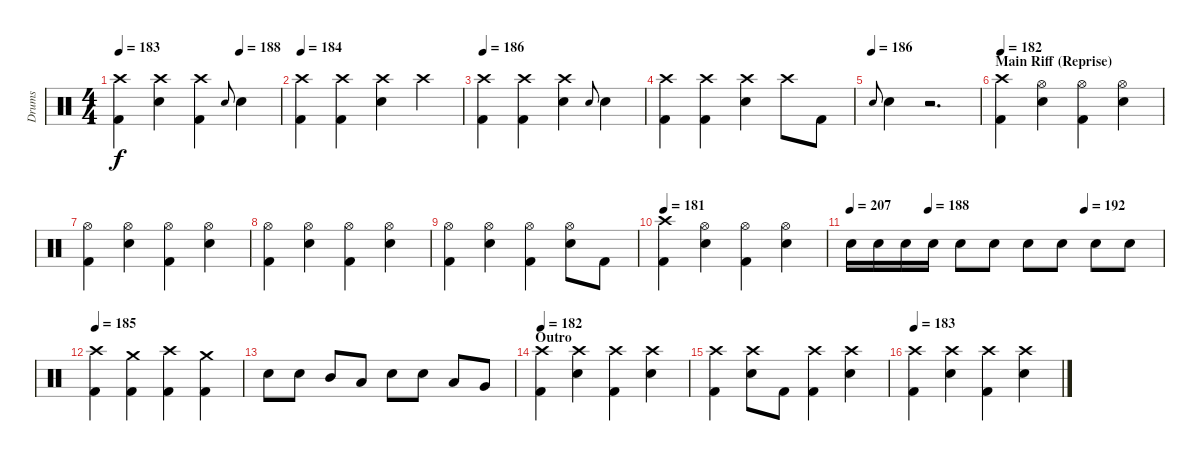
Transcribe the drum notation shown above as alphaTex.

\track ("Drums" "Drums") {instrument percussion}
\staff {score}
\articulation defaults
\ts (4 4)
\tempo 183
\tempo (188 0.75)
\clef neutral
\ks c
("Kick (hit) 2" "Crash high (hit)").4{dy f} ("Snare (hit) 2" "Crash high (hit)").4 ("Kick (hit) 2" "Crash high (hit)").4 "Snare (hit)".8{gr onbeat} "Snare (hit) 2".4 |
\tempo 184
("Crash high (hit)" "Kick (hit) 2").4 ("Crash high (hit)" "Kick (hit) 2").4 ("Crash high (hit)" "Snare (hit) 2").4 "Crash high (hit)".4 |
\tempo 186
("Crash high (hit)" "Kick (hit) 2").4 ("Crash high (hit)" "Kick (hit) 2").4 ("Crash high (hit)" "Snare (hit) 2").4 "Snare (hit)".8{gr onbeat} "Snare (hit) 2".4 |
("Crash high (hit)" "Kick (hit) 2").4 ("Crash high (hit)" "Kick (hit) 2").4 ("Crash high (hit)" "Snare (hit) 2").4 "Crash high (hit)".8 "Kick (hit) 2".8 |
\tempo (186)
"Snare (hit)".8{gr onbeat} "Snare (hit) 2".4 r.2{d} |
\section ("" "Main Riff (Reprise)")
\tempo 182
("Crash high (hit)" "Kick (hit) 2").4 ("Hi-Hat (open)" "Snare (hit) 2").4 ("Hi-Hat (open)" "Kick (hit) 2").4 ("Hi-Hat (open)" "Snare (hit) 2").4 |
("Hi-Hat (open)" "Kick (hit) 2").4 ("Hi-Hat (open)" "Snare (hit) 2").4 ("Hi-Hat (open)" "Kick (hit) 2").4 ("Hi-Hat (open)" "Snare (hit) 2").4 |
("Hi-Hat (open)" "Kick (hit) 2").4 ("Hi-Hat (open)" "Snare (hit) 2").4 ("Hi-Hat (open)" "Kick (hit) 2").4 ("Hi-Hat (open)" "Snare (hit) 2").4 |
("Hi-Hat (open)" "Kick (hit) 2").4 ("Hi-Hat (open)" "Snare (hit) 2").4 ("Hi-Hat (open)" "Kick (hit) 2").4 ("Hi-Hat (open)" "Snare (hit) 2").8 "Kick (hit) 2".8 |
\tempo 181
("Crash high (hit)" "Kick (hit) 2").4 ("Hi-Hat (open)" "Snare (hit) 2").4 ("Hi-Hat (open)" "Kick (hit) 2").4 ("Hi-Hat (open)" "Snare (hit) 2").4 |
\tempo 207
\tempo (188 0.25)
\tempo (192 0.75)
"Snare (hit) 2".16 "Snare (hit) 2".16 "Snare (hit) 2".16 "Snare (hit) 2".16 "Snare (hit) 2".8 "Snare (hit) 2".8 "Snare (hit) 2".8 "Snare (hit) 2".8 "Snare (hit) 2".8 "Snare (hit) 2".8 |
\tempo 185
("Crash high (hit)" "Kick (hit) 2").4 ("Crash medium (hit)" "Kick (hit) 2").4 ("Crash high (hit)" "Kick (hit) 2").4 ("Crash medium (hit)" "Kick (hit) 2").4 |
"Snare (hit) 2".8 "Snare (hit) 2".8 "Mid Tom (hit)".8 "Low Tom (hit)".8 "Snare (hit) 2".8 "Snare (hit) 2".8 "Low Tom (hit)".8 "Very Low Tom (hit)".8 |
\section ("" "Outro")
\tempo 182
("Crash high (hit)" "Kick (hit) 2").4 ("Snare (hit) 2" "Crash high (hit)").4 ("Kick (hit) 2" "Crash high (hit)").4 ("Snare (hit) 2" "Crash high (hit)").4 |
("Crash high (hit)" "Kick (hit) 2").4 ("Snare (hit) 2" "Crash high (hit)").8 "Kick (hit) 2".8 ("Kick (hit) 2" "Crash high (hit)").4 ("Snare (hit) 2" "Crash high (hit)").4 |
\tempo 183
("Crash high (hit)" "Kick (hit) 2").4 ("Snare (hit) 2" "Crash high (hit)").4 ("Kick (hit) 2" "Crash high (hit)").4 ("Snare (hit) 2" "Crash high (hit)").4
